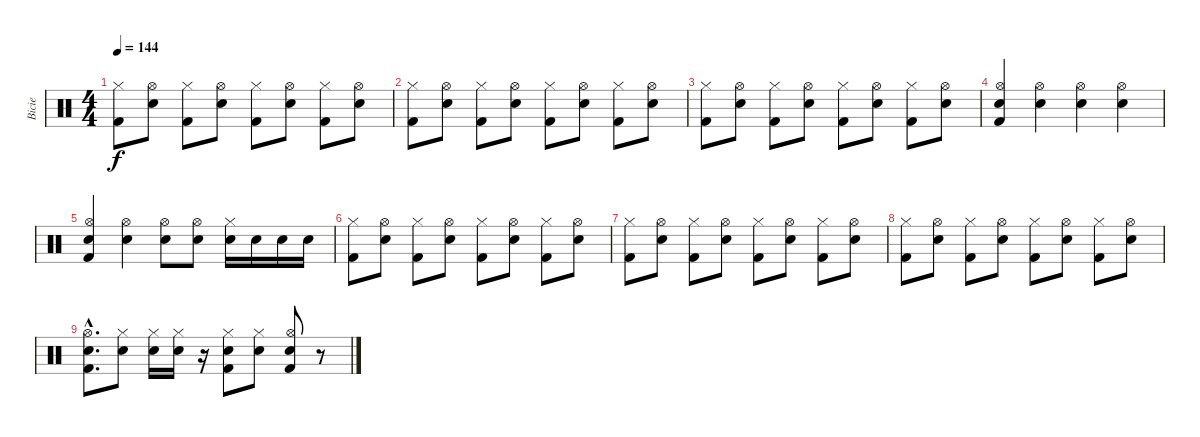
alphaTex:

\track ("Bicie" "Bicie") {instrument percussion}
\staff {score}
\articulation defaults
\ts (4 4)
\tempo 144
\clef neutral
\ks c
("Hi-Hat (closed)" "Kick (hit) 2").8{dy f} ("Hi-Hat (open)" "Electric Snare (hit)").8 ("Hi-Hat (closed)" "Kick (hit) 2").8 ("Hi-Hat (open)" "Electric Snare (hit)").8 ("Hi-Hat (closed)" "Kick (hit) 2").8 ("Hi-Hat (open)" "Electric Snare (hit)").8 ("Hi-Hat (closed)" "Kick (hit) 2").8 ("Hi-Hat (open)" "Electric Snare (hit)").8 |
("Hi-Hat (closed)" "Kick (hit) 2").8 ("Hi-Hat (open)" "Electric Snare (hit)").8 ("Hi-Hat (closed)" "Kick (hit) 2").8 ("Hi-Hat (open)" "Electric Snare (hit)").8 ("Hi-Hat (closed)" "Kick (hit) 2").8 ("Hi-Hat (open)" "Electric Snare (hit)").8 ("Hi-Hat (closed)" "Kick (hit) 2").8 ("Hi-Hat (open)" "Electric Snare (hit)").8 |
("Hi-Hat (closed)" "Kick (hit) 2").8 ("Hi-Hat (open)" "Electric Snare (hit)").8 ("Hi-Hat (closed)" "Kick (hit) 2").8 ("Hi-Hat (open)" "Electric Snare (hit)").8 ("Hi-Hat (closed)" "Kick (hit) 2").8 ("Hi-Hat (open)" "Electric Snare (hit)").8 ("Hi-Hat (closed)" "Kick (hit) 2").8 ("Hi-Hat (open)" "Electric Snare (hit)").8 |
("Hi-Hat (open)" "Electric Snare (hit)" "Kick (hit) 2").4 ("Hi-Hat (open)" "Electric Snare (hit)").4 ("Hi-Hat (open)" "Electric Snare (hit)").4 ("Hi-Hat (open)" "Electric Snare (hit)").4 |
("Hi-Hat (open)" "Electric Snare (hit)" "Kick (hit) 2").4 ("Hi-Hat (open)" "Electric Snare (hit)").4 ("Hi-Hat (open)" "Electric Snare (hit)").8 ("Hi-Hat (open)" "Electric Snare (hit)").8 ("Hi-Hat (closed)" "Electric Snare (hit)").16 "Electric Snare (hit)".16 "Electric Snare (hit)".16 "Electric Snare (hit)".16 |
("Hi-Hat (closed)" "Kick (hit) 2").8 ("Hi-Hat (open)" "Electric Snare (hit)").8 ("Hi-Hat (closed)" "Kick (hit) 2").8 ("Hi-Hat (open)" "Electric Snare (hit)").8 ("Hi-Hat (closed)" "Kick (hit) 2").8 ("Hi-Hat (open)" "Electric Snare (hit)").8 ("Hi-Hat (closed)" "Kick (hit) 2").8 ("Hi-Hat (open)" "Electric Snare (hit)").8 |
("Hi-Hat (closed)" "Kick (hit) 2").8 ("Hi-Hat (open)" "Electric Snare (hit)").8 ("Hi-Hat (closed)" "Kick (hit) 2").8 ("Hi-Hat (open)" "Electric Snare (hit)").8 ("Hi-Hat (closed)" "Kick (hit) 2").8 ("Hi-Hat (open)" "Electric Snare (hit)").8 ("Hi-Hat (closed)" "Kick (hit) 2").8 ("Hi-Hat (open)" "Electric Snare (hit)").8 |
("Hi-Hat (closed)" "Kick (hit) 2").8 ("Hi-Hat (open)" "Electric Snare (hit)").8 ("Hi-Hat (closed)" "Kick (hit) 2").8 ("Hi-Hat (open)" "Electric Snare (hit)").8 ("Hi-Hat (closed)" "Kick (hit) 2").8 ("Hi-Hat (open)" "Electric Snare (hit)").8 ("Hi-Hat (closed)" "Kick (hit) 2").8 ("Hi-Hat (open)" "Electric Snare (hit)").8 |
("Hi-Hat (open)"{hac} "Electric Snare (hit)"{hac} "Kick (hit) 2"{hac}).8{d} ("Hi-Hat (closed)" "Electric Snare (hit)").8 ("Hi-Hat (closed)" "Electric Snare (hit)").16 ("Hi-Hat (closed)" "Electric Snare (hit)").16 r.16 ("Hi-Hat (closed)" "Electric Snare (hit)" "Kick (hit) 2").8 ("Hi-Hat (closed)" "Electric Snare (hit)").8 ("Hi-Hat (open)" "Electric Snare (hit)" "Kick (hit) 2").8 r.8
